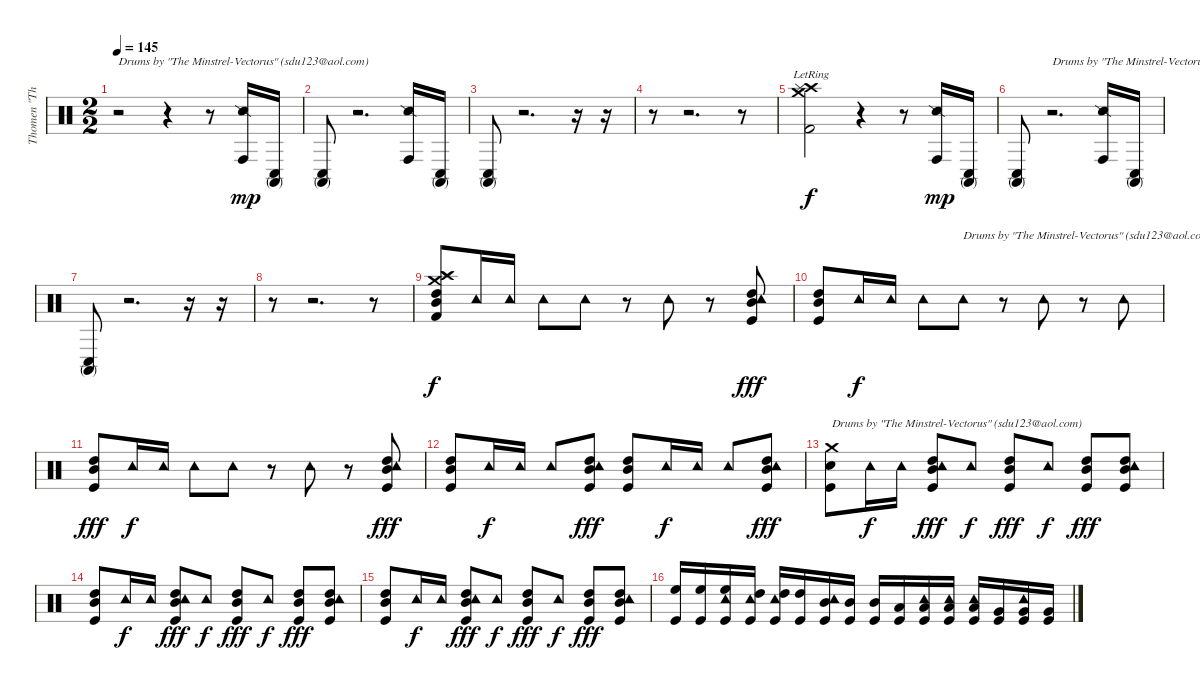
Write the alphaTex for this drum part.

\track ("Thomen \"The Omen\" Stauch" "Thomen \"Th") {instrument percussion}
\staff {score}
\articulation defaults
\ts (2 2)
\tempo 145
\clef neutral
\ks c
r.2{txt "Drums by \"The Minstrel-Vectorus\" (sdu123@aol.com)" dy mp} r.4 r.8 ("Conga high (hit)" "Snare (side stick) 2").16 ("Conga low (hit)" "Conga high (mute)").16 |
("Conga low (hit)" "Conga high (mute)").8 r.2{d} ("Conga high (hit)" "Snare (side stick) 2").16 ("Conga low (hit)" "Conga high (mute)").16 |
("Conga low (hit)" "Conga high (mute)").8 r.2{d} r.16 r.16 |
r.8 r.2{d} r.8 |
("Kick (hit) 2" "Crash high (hit)"{lr} "Crash medium (hit)"{lr} "Splash (hit)"{lr}).2{dy f} r.4 r.8 ("Conga high (hit)" "Snare (side stick) 2").16{dy mp} ("Conga low (hit)" "Conga high (mute)").16 |
("Conga low (hit)" "Conga high (mute)").8 r.2{d txt "Drums by \"The Minstrel-Vectorus\" (sdu123@aol.com)"} ("Conga high (hit)" "Snare (side stick) 2").16 ("Conga low (hit)" "Conga high (mute)").16 |
("Conga low (hit)" "Conga high (mute)").8 r.2{d} r.16 r.16 |
r.8 r.2{d} r.8 |
("Crash medium (hit)" "Crash high (hit)" "Splash (hit)" "Mid Tom (hit)" "High Tom (hit)" "Kick (hit) 2").8{dy f} "Tambourine (hit)".16 "Tambourine (hit)".16 "Tambourine (hit)".8 "Tambourine (hit)".8 r.8 "Tambourine (hit)".8 r.8 ("Tambourine (hit)" "High Tom (hit)" "Mid Tom (hit)" "Kick (hit)").8{dy fff} |
("High Tom (hit)" "Mid Tom (hit)" "Kick (hit)").8 "Tambourine (hit)".16{dy f} "Tambourine (hit)".16 "Tambourine (hit)".8 "Tambourine (hit)".8{txt "Drums by \"The Minstrel-Vectorus\" (sdu123@aol.com)"} r.8 "Tambourine (hit)".8 r.8 "Tambourine (hit)".8 |
("High Tom (hit)" "Mid Tom (hit)" "Kick (hit)").8{dy fff} "Tambourine (hit)".16{dy f} "Tambourine (hit)".16 "Tambourine (hit)".8 "Tambourine (hit)".8 r.8 "Tambourine (hit)".8 r.8 ("Tambourine (hit)" "High Tom (hit)" "Mid Tom (hit)" "Kick (hit)").8{dy fff} |
("High Tom (hit)" "Mid Tom (hit)" "Kick (hit)").8 "Tambourine (hit)".16{dy f} "Tambourine (hit)".16 "Tambourine (hit)".8 ("Tambourine (hit)" "High Tom (hit)" "Mid Tom (hit)" "Kick (hit)").8{dy fff} ("High Tom (hit)" "Mid Tom (hit)" "Kick (hit)").8 "Tambourine (hit)".16{dy f} "Tambourine (hit)".16 "Tambourine (hit)".8 ("Tambourine (hit)" "High Tom (hit)" "Mid Tom (hit)" "Kick (hit)").8{dy fff} |
("Crash medium (hit)" "Snare (hit) 2" "Kick (hit)").8{txt "Drums by \"The Minstrel-Vectorus\" (sdu123@aol.com)"} "Tambourine (hit)".16{dy f} "Tambourine (hit)".16 ("Tambourine (hit)" "High Tom (hit)" "Mid Tom (hit)" "Kick (hit)").8{dy fff} "Tambourine (hit)".8{dy f} ("High Tom (hit)" "Mid Tom (hit)" "Kick (hit)").8{dy fff} "Tambourine (hit)".8{dy f} ("High Tom (hit)" "Mid Tom (hit)" "Kick (hit)").8{dy fff} ("Tambourine (hit)" "High Tom (hit)" "Mid Tom (hit)" "Kick (hit)").8 |
("High Tom (hit)" "Mid Tom (hit)" "Kick (hit)").8 "Tambourine (hit)".16{dy f} "Tambourine (hit)".16 ("Tambourine (hit)" "High Tom (hit)" "Mid Tom (hit)" "Kick (hit)").8{dy fff} "Tambourine (hit)".8{dy f} ("High Tom (hit)" "Mid Tom (hit)" "Kick (hit)").8{dy fff} "Tambourine (hit)".8{dy f} ("High Tom (hit)" "Mid Tom (hit)" "Kick (hit)").8{dy fff} ("Tambourine (hit)" "High Tom (hit)" "Mid Tom (hit)" "Kick (hit)").8 |
("High Tom (hit)" "Mid Tom (hit)" "Kick (hit)").8 "Tambourine (hit)".16{dy f} "Tambourine (hit)".16 ("Tambourine (hit)" "High Tom (hit)" "Mid Tom (hit)" "Kick (hit)").8{dy fff} "Tambourine (hit)".8{dy f} ("High Tom (hit)" "Mid Tom (hit)" "Kick (hit)").8{dy fff} "Tambourine (hit)".8{dy f} ("High Tom (hit)" "Mid Tom (hit)" "Kick (hit)").8{dy fff} ("Tambourine (hit)" "High Tom (hit)" "Mid Tom (hit)" "Kick (hit)").8 |
("High Floor Tom (hit)" "Kick (hit)").16 ("High Floor Tom (hit)" "Kick (hit)").16 ("Tambourine (hit)" "High Floor Tom (hit)" "Kick (hit)").16 ("Tambourine (hit)" "High Tom (hit)" "Kick (hit)").16 ("Tambourine (hit)" "High Tom (hit)" "Kick (hit)").16 ("High Tom (hit)" "Kick (hit)").16 ("Tambourine (hit)" "Mid Tom (hit)" "Kick (hit)").16 ("Mid Tom (hit)" "Kick (hit)").16 ("Mid Tom (hit)" "Kick (hit)").16 ("Low Tom (hit)" "Kick (hit)").16 ("Tambourine (hit)" "Low Tom (hit)" "Kick (hit)").16 ("Tambourine (hit)" "Low Tom (hit)" "Kick (hit)").16 ("Tambourine (hit)" "Low Tom (hit)" "Kick (hit)").16 ("Very Low Tom (hit)" "Kick (hit)").16 ("Tambourine (hit)" "Very Low Tom (hit)" "Kick (hit)").16 ("Very Low Tom (hit)" "Kick (hit)").16
